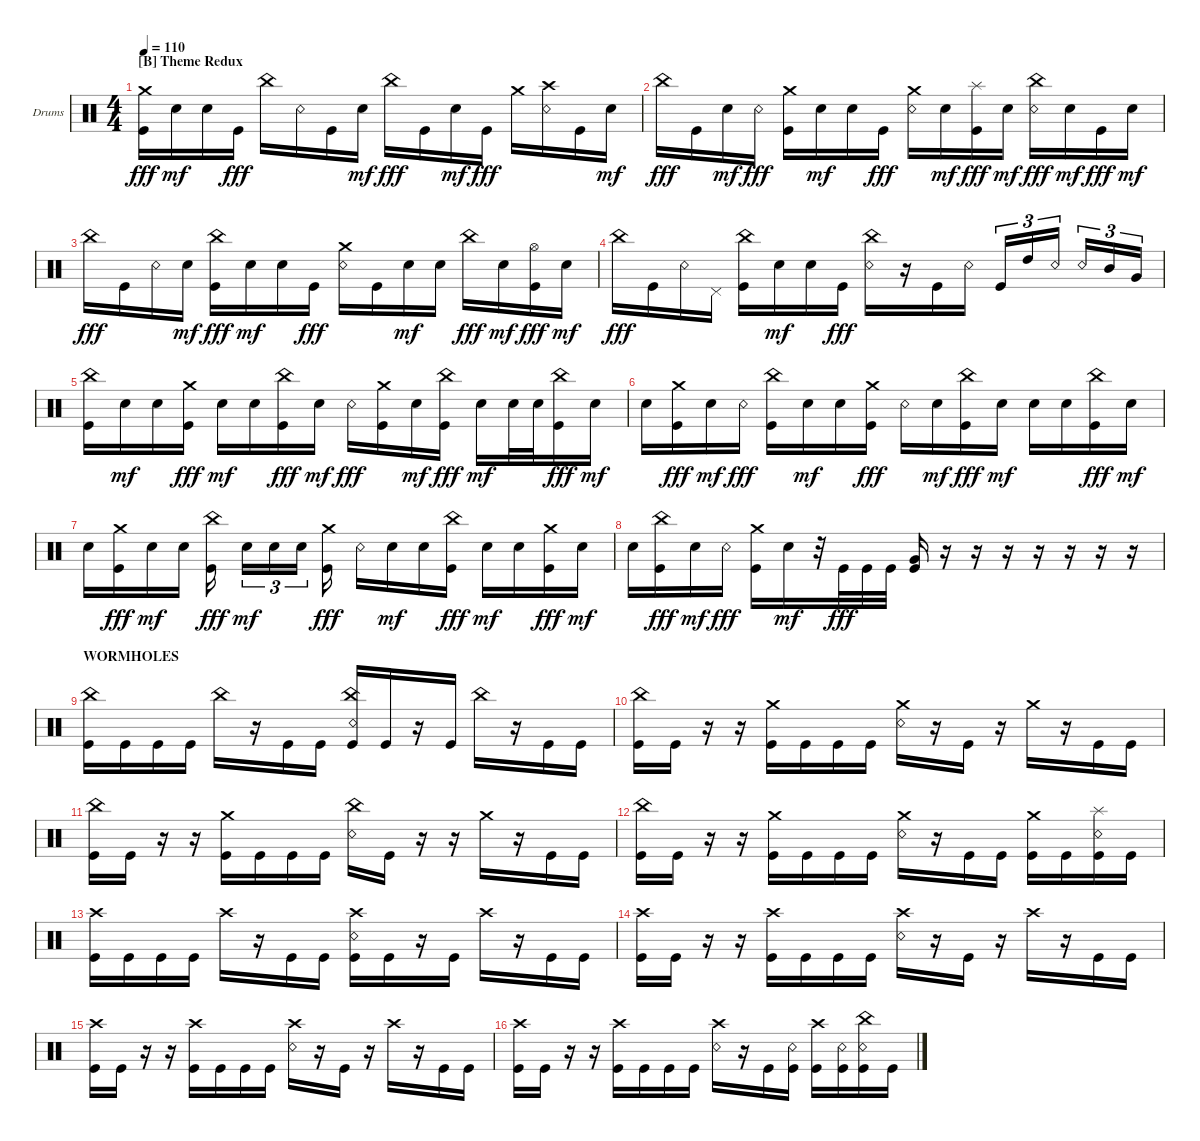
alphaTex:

\defaultSystemsLayout 4
\bracketExtendMode groupsimilarinstruments
\firstSystemTrackNameOrientation horizontal
\otherSystemsTrackNameOrientation horizontal
\track ("Chris Khoury" "Drums") {instrument percussion}
\staff {score}
\articulation defaults
\ts (4 4)
\section ("B" "Theme Redux")
\tempo 110
\clef neutral
\ks c
("Crash medium (hit)" "Kick (hit)").16{dy fff} "Snare (hit) 2".16{dy mf} "Snare (hit) 2".16 "Kick (hit)".16{dy fff} "China (hit)".16 "Snare (rim shot)".16 "Kick (hit)".16 "Snare (hit) 2".16{dy mf} "China (hit)".16{dy fff} "Kick (hit)".16 "Snare (hit) 2".16{dy mf} "Kick (hit)".16{dy fff} "Crash medium (hit)".16 ("Snare (rim shot)" "Crash high (hit)").16 "Kick (hit)".16 "Snare (hit) 2".16{dy mf} |
"China (hit)".16{dy fff} "Kick (hit)".16 "Snare (hit) 2".16{dy mf} "Snare (rim shot)".16{dy fff} ("Crash medium (hit)" "Kick (hit)").16 "Snare (hit) 2".16{dy mf} "Snare (hit) 2".16 "Kick (hit)".16{dy fff} ("Crash medium (hit)" "Snare (rim shot)").16 "Snare (hit) 2".16{dy mf} ("Splash (hit)" "Kick (hit)").16{dy fff} "Snare (hit) 2".16{dy mf} ("China (hit)" "Snare (rim shot)").16{dy fff} "Snare (hit) 2".16{dy mf} "Kick (hit)".16{dy fff} "Snare (hit) 2".16{dy mf} |
"China (hit)".16{dy fff} "Kick (hit)".16 "Snare (rim shot)".16 "Snare (hit) 2".16{dy mf} ("China (hit)" "Kick (hit)").16{dy fff} "Snare (hit) 2".16{dy mf} "Snare (hit) 2".16 "Kick (hit)".16{dy fff} ("Crash medium (hit)" "Snare (rim shot)").16 "Kick (hit)".16 "Snare (hit) 2".16{dy mf} "Snare (hit) 2".16 "China (hit)".16{dy fff} "Snare (hit) 2".16{dy mf} ("Hi-Hat (open)" "Kick (hit)").16{dy fff} "Snare (hit) 2".16{dy mf} |
"China (hit)".16{dy fff} "Kick (hit)".16 "Snare (rim shot)".16 "Pedal Hi-Hat (hit)".16 ("China (hit)" "Kick (hit)").16 "Snare (hit) 2".16{dy mf} "Snare (hit) 2".16 "Kick (hit)".16{dy fff} ("China (hit)" "Snare (rim shot)").16 r.16 "Kick (hit)".16 "Snare (rim shot)".16 "Kick (hit)".16{tu (3 2)} "High Tom (hit)".16{tu (3 2)} "Snare (rim shot)".16{tu (3 2)} "Snare (rim shot)".16{tu (3 2)} "Mid Tom (hit)".16{tu (3 2)} "Very Low Tom (hit)".16{tu (3 2)} |
("Kick (hit)" "China (hit)").16 "Snare (hit) 2".16{dy mf} "Snare (hit) 2".16 ("Kick (hit)" "Crash medium (hit)").16{dy fff} "Snare (hit) 2".16{dy mf} "Snare (hit) 2".16 ("Kick (hit)" "China (hit)").16{dy fff} "Snare (hit) 2".16{dy mf} "Snare (rim shot)".16{dy fff} ("Kick (hit)" "Crash medium (hit)").16 "Snare (hit) 2".16{dy mf} ("Kick (hit)" "China (hit)").16{dy fff} "Snare (hit) 2".16{dy mf} "Snare (hit) 2".32 "Snare (hit) 2".32 ("Kick (hit)" "China (hit)").16{dy fff} "Snare (hit) 2".16{dy mf} |
"Snare (hit) 2".16 ("Kick (hit)" "Crash medium (hit)").16{dy fff} "Snare (hit) 2".16{dy mf} "Snare (rim shot)".16{dy fff} ("Kick (hit)" "China (hit)").16 "Snare (hit) 2".16{dy mf} "Snare (hit) 2".16 ("Kick (hit)" "Crash medium (hit)").16{dy fff} "Snare (rim shot)".16 "Snare (hit) 2".16{dy mf} ("Kick (hit)" "China (hit)").16{dy fff} "Snare (hit) 2".16{dy mf} "Snare (hit) 2".16 "Snare (hit) 2".16 ("Kick (hit)" "China (hit)").16{dy fff} "Snare (hit) 2".16{dy mf} |
"Snare (hit) 2".16 ("Kick (hit)" "Crash medium (hit)").16{dy fff} "Snare (hit) 2".16{dy mf} "Snare (hit) 2".16 ("Kick (hit)" "China (hit)").16{dy fff} "Snare (hit) 2".16{tu (3 2) dy mf} "Snare (hit) 2".16{tu (3 2)} "Snare (hit) 2".16{tu (3 2)} ("Kick (hit)" "Crash medium (hit)").16{dy fff} "Snare (rim shot)".16 "Snare (hit) 2".16{dy mf} "Snare (hit) 2".16 ("Kick (hit)" "China (hit)").16{dy fff} "Snare (hit) 2".16{dy mf} "Snare (hit) 2".16 ("Kick (hit)" "Crash medium (hit)").16{dy fff} "Snare (hit) 2".16{dy mf} |
"Snare (hit) 2".16 ("China (hit)" "Kick (hit)").16{dy fff} "Snare (hit) 2".16{dy mf} "Snare (rim shot)".16{dy fff} ("Crash medium (hit)" "Kick (hit)").16 "Snare (hit) 2".16{dy mf} r.32 "Kick (hit)".32{dy fff} "Kick (hit)".32 "Kick (hit)".32 ("Kick (hit)" "Very Low Tom (hit)").16 r.16 r.16 r.16 r.16 r.16 r.16 r.16 |
\section ("" "WORMHOLES")
("China (hit)" "Kick (hit)").16 "Kick (hit)".16 "Kick (hit)".16 "Kick (hit)".16 "China (hit)".16 r.16 "Kick (hit)".16 "Kick (hit)".16 ("China (hit)" "Kick (hit)" "Snare (rim shot)").16 "Kick (hit)".16 r.16 "Kick (hit)".16 "China (hit)".16 r.16 "Kick (hit)".16 "Kick (hit)".16 |
("Kick (hit)" "China (hit)").16 "Kick (hit)".16 r.16 r.16 ("Crash medium (hit)" "Kick (hit)").16 "Kick (hit)".16 "Kick (hit)".16 "Kick (hit)".16 ("Crash medium (hit)" "Snare (rim shot)").16 r.16 "Kick (hit)".16 r.16 "Crash medium (hit)".16 r.16 "Kick (hit)".16 "Kick (hit)".16 |
("Kick (hit)" "China (hit)").16 "Kick (hit)".16 r.16 r.16 ("Crash medium (hit)" "Kick (hit)").16 "Kick (hit)".16 "Kick (hit)".16 "Kick (hit)".16 ("China (hit)" "Snare (rim shot)").16 "Kick (hit)".16 r.16 r.16 "Crash medium (hit)".16 r.16 "Kick (hit)".16 "Kick (hit)".16 |
("Kick (hit)" "China (hit)").16 "Kick (hit)".16 r.16 r.16 ("Crash medium (hit)" "Kick (hit)").16 "Kick (hit)".16 "Kick (hit)".16 "Kick (hit)".16 ("Crash medium (hit)" "Snare (rim shot)").16 r.16 "Kick (hit)".16 "Kick (hit)".16 ("Crash medium (hit)" "Kick (hit)").16 "Kick (hit)".16 ("Splash (hit)" "Snare (rim shot)" "Kick (hit)").16 "Kick (hit)".16 |
("Crash high (hit)" "Kick (hit)").16 "Kick (hit)".16 "Kick (hit)".16 "Kick (hit)".16 "Crash high (hit)".16 r.16 "Kick (hit)".16 "Kick (hit)".16 ("Crash high (hit)" "Snare (rim shot)" "Kick (hit)").16 "Kick (hit)".16 r.16 "Kick (hit)".16 "Crash high (hit)".16 r.16 "Kick (hit)".16 "Kick (hit)".16 |
("Crash high (hit)" "Kick (hit)").16 "Kick (hit)".16 r.16 r.16 ("Crash high (hit)" "Kick (hit)").16 "Kick (hit)".16 "Kick (hit)".16 "Kick (hit)".16 ("Crash high (hit)" "Snare (rim shot)").16 r.16 "Kick (hit)".16 r.16 "Crash high (hit)".16 r.16 "Kick (hit)".16 "Kick (hit)".16 |
("Crash high (hit)" "Kick (hit)").16 "Kick (hit)".16 r.16 r.16 ("Crash high (hit)" "Kick (hit)").16 "Kick (hit)".16 "Kick (hit)".16 "Kick (hit)".16 ("Crash high (hit)" "Snare (rim shot)").16 r.16 "Kick (hit)".16 r.16 "Crash high (hit)".16 r.16 "Kick (hit)".16 "Kick (hit)".16 |
("Crash high (hit)" "Kick (hit)").16 "Kick (hit)".16 r.16 r.16 ("Crash high (hit)" "Kick (hit)").16 "Kick (hit)".16 "Kick (hit)".16 "Kick (hit)".16 ("Crash high (hit)" "Snare (rim shot)").16 r.16 "Kick (hit)".16 ("Snare (rim shot)" "Kick (hit)").16 ("Crash high (hit)" "Kick (hit)").16 ("Snare (rim shot)" "Kick (hit)").16 ("China (hit)" "Snare (rim shot)" "Kick (hit)").16 "Kick (hit)".16
